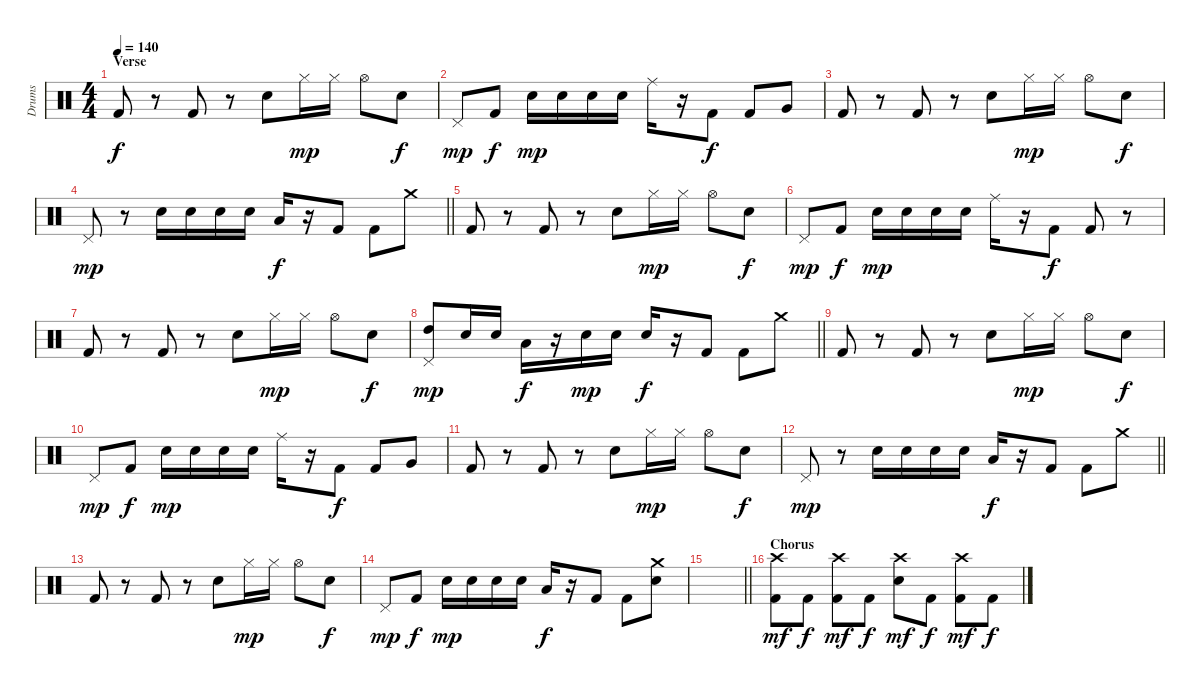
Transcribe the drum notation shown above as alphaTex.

\track ("Drums" "Drums") {instrument percussion}
\staff {score}
\articulation defaults
\ts (4 4)
\section ("" "Verse")
\tempo 140
\clef neutral
\ks c "Kick (hit) 2".8{dy f}
r.8 "Kick (hit) 2".8 r.8 "Snare (hit) 2".8 "Hi-Hat (closed)".16{dy mp} "Hi-Hat (closed)".16 "Hi-Hat (open)".8 "Snare (hit) 2".8{dy f} |
"Pedal Hi-Hat (hit)".8{dy mp} "Kick (hit) 2".8{dy f} "Snare (hit) 2".16{dy mp} "Snare (hit) 2".16 "Snare (hit) 2".16 "Snare (hit) 2".16 "Ride (middle)".16 r.16 "Kick (hit) 2".8{dy f} "Kick (hit) 2".8 "Very Low Tom (hit)".8 |
"Kick (hit) 2".8 r.8 "Kick (hit) 2".8 r.8 "Snare (hit) 2".8 "Hi-Hat (closed)".16{dy mp} "Hi-Hat (closed)".16 "Hi-Hat (open)".8 "Snare (hit) 2".8{dy f} |
\barLineRight lightlight "Pedal Hi-Hat (hit)".8{dy mp}
r.8 "Snare (hit) 2".16 "Snare (hit) 2".16 "Snare (hit) 2".16 "Snare (hit) 2".16 "Low Tom (hit)".16{dy f} r.16 "Kick (hit) 2".8 "Kick (hit) 2".8 "Crash medium (hit)".8 |
"Kick (hit) 2".8 r.8 "Kick (hit) 2".8 r.8 "Snare (hit) 2".8 "Hi-Hat (closed)".16{dy mp} "Hi-Hat (closed)".16 "Hi-Hat (open)".8 "Snare (hit) 2".8{dy f} |
"Pedal Hi-Hat (hit)".8{dy mp} "Kick (hit) 2".8{dy f} "Snare (hit) 2".16{dy mp} "Snare (hit) 2".16 "Snare (hit) 2".16 "Snare (hit) 2".16 "Ride (middle)".16 r.16 "Kick (hit) 2".8{dy f} "Kick (hit) 2".8 r.8 |
"Kick (hit) 2".8 r.8 "Kick (hit) 2".8 r.8 "Snare (hit) 2".8 "Hi-Hat (closed)".16{dy mp} "Hi-Hat (closed)".16 "Hi-Hat (open)".8 "Snare (hit) 2".8{dy f} |
\barLineRight lightlight
("High Tom (hit)" "Pedal Hi-Hat (hit)").8{dy mp} "Snare (hit) 2".16 "Snare (hit) 2".16 "Low Tom (hit)".16{dy f} r.16 "Snare (hit) 2".16{dy mp} "Snare (hit) 2".16 "Snare (hit) 2".16{dy f} r.16 "Kick (hit) 2".8 "Kick (hit) 2".8 "Crash medium (hit)".8 |
"Kick (hit) 2".8 r.8 "Kick (hit) 2".8 r.8 "Snare (hit) 2".8 "Hi-Hat (closed)".16{dy mp} "Hi-Hat (closed)".16 "Hi-Hat (open)".8 "Snare (hit) 2".8{dy f} |
"Pedal Hi-Hat (hit)".8{dy mp} "Kick (hit) 2".8{dy f} "Snare (hit) 2".16{dy mp} "Snare (hit) 2".16 "Snare (hit) 2".16 "Snare (hit) 2".16 "Ride (middle)".16 r.16 "Kick (hit) 2".8{dy f} "Kick (hit) 2".8 "Very Low Tom (hit)".8 |
"Kick (hit) 2".8 r.8 "Kick (hit) 2".8 r.8 "Snare (hit) 2".8 "Hi-Hat (closed)".16{dy mp} "Hi-Hat (closed)".16 "Hi-Hat (open)".8 "Snare (hit) 2".8{dy f} |
\barLineRight lightlight "Pedal Hi-Hat (hit)".8{dy mp}
r.8 "Snare (hit) 2".16 "Snare (hit) 2".16 "Snare (hit) 2".16 "Snare (hit) 2".16 "Low Tom (hit)".16{dy f} r.16 "Kick (hit) 2".8 "Kick (hit) 2".8 "Crash medium (hit)".8 |
"Kick (hit) 2".8 r.8 "Kick (hit) 2".8 r.8 "Snare (hit) 2".8 "Hi-Hat (closed)".16{dy mp} "Hi-Hat (closed)".16 "Hi-Hat (open)".8 "Snare (hit) 2".8{dy f} |
"Pedal Hi-Hat (hit)".8{dy mp} "Kick (hit) 2".8{dy f} "Snare (hit) 2".16{dy mp} "Snare (hit) 2".16 "Snare (hit) 2".16 "Snare (hit) 2".16 "Low Tom (hit)".16{dy f} r.16 "Kick (hit) 2".8 "Kick (hit) 2".8 ("Crash medium (hit)" "Snare (hit) 2").8 |
\barLineRight lightlight
|
\section ("" "Chorus")
("Crash high (hit)" "Kick (hit) 2").8{dy mf} "Kick (hit) 2".8{dy f} ("Crash high (hit)" "Kick (hit) 2").8{dy mf} "Kick (hit) 2".8{dy f} ("Crash high (hit)" "Snare (hit) 2").8{dy mf} "Kick (hit) 2".8{dy f} ("Crash high (hit)" "Kick (hit) 2").8{dy mf} "Kick (hit) 2".8{dy f}
